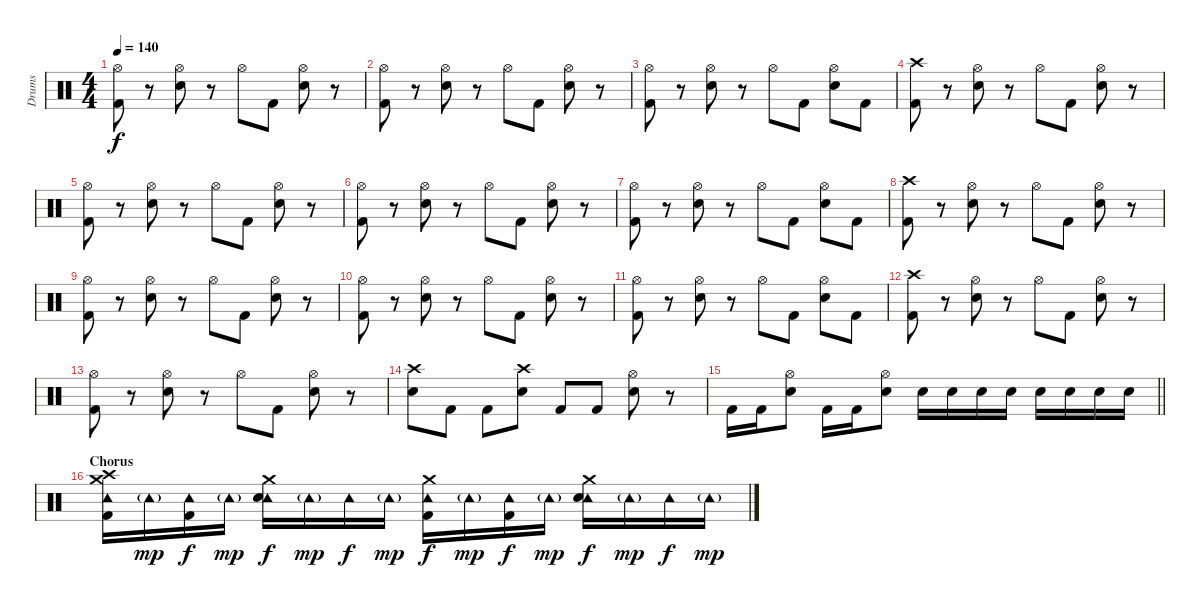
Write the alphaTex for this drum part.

\track ("Drums" "Drums") {instrument percussion}
\staff {score}
\articulation defaults
\ts (4 4)
\tempo 140
\clef neutral
\ks c
("Hi-Hat (open)" "Kick (hit) 2").8{dy f} r.8 ("Hi-Hat (open)" "Electric Snare (hit)").8 r.8 "Hi-Hat (open)".8 "Kick (hit) 2".8 ("Hi-Hat (open)" "Electric Snare (hit)").8 r.8 |
("Hi-Hat (open)" "Kick (hit) 2").8 r.8 ("Hi-Hat (open)" "Electric Snare (hit)").8 r.8 "Hi-Hat (open)".8 "Kick (hit) 2".8 ("Hi-Hat (open)" "Electric Snare (hit)").8 r.8 |
("Hi-Hat (open)" "Kick (hit) 2").8 r.8 ("Hi-Hat (open)" "Electric Snare (hit)").8 r.8 "Hi-Hat (open)".8 "Kick (hit) 2".8 ("Hi-Hat (open)" "Electric Snare (hit)").8 "Kick (hit) 2".8 |
("Crash high (hit)" "Kick (hit) 2").8 r.8 ("Hi-Hat (open)" "Electric Snare (hit)").8 r.8 "Hi-Hat (open)".8 "Kick (hit) 2".8 ("Hi-Hat (open)" "Electric Snare (hit)").8 r.8 |
("Hi-Hat (open)" "Kick (hit) 2").8 r.8 ("Hi-Hat (open)" "Electric Snare (hit)").8 r.8 "Hi-Hat (open)".8 "Kick (hit) 2".8 ("Hi-Hat (open)" "Electric Snare (hit)").8 r.8 |
("Hi-Hat (open)" "Kick (hit) 2").8 r.8 ("Hi-Hat (open)" "Electric Snare (hit)").8 r.8 "Hi-Hat (open)".8 "Kick (hit) 2".8 ("Hi-Hat (open)" "Electric Snare (hit)").8 r.8 |
("Hi-Hat (open)" "Kick (hit) 2").8 r.8 ("Hi-Hat (open)" "Electric Snare (hit)").8 r.8 "Hi-Hat (open)".8 "Kick (hit) 2".8 ("Hi-Hat (open)" "Electric Snare (hit)").8 "Kick (hit) 2".8 |
("Crash high (hit)" "Kick (hit) 2").8 r.8 ("Hi-Hat (open)" "Electric Snare (hit)").8 r.8 "Hi-Hat (open)".8 "Kick (hit) 2".8 ("Hi-Hat (open)" "Electric Snare (hit)").8 r.8 |
("Hi-Hat (open)" "Kick (hit) 2").8 r.8 ("Hi-Hat (open)" "Electric Snare (hit)").8 r.8 "Hi-Hat (open)".8 "Kick (hit) 2".8 ("Hi-Hat (open)" "Electric Snare (hit)").8 r.8 |
("Hi-Hat (open)" "Kick (hit) 2").8 r.8 ("Hi-Hat (open)" "Electric Snare (hit)").8 r.8 "Hi-Hat (open)".8 "Kick (hit) 2".8 ("Hi-Hat (open)" "Electric Snare (hit)").8 r.8 |
("Hi-Hat (open)" "Kick (hit) 2").8 r.8 ("Hi-Hat (open)" "Electric Snare (hit)").8 r.8 "Hi-Hat (open)".8 "Kick (hit) 2".8 ("Hi-Hat (open)" "Electric Snare (hit)").8 "Kick (hit) 2".8 |
("Crash high (hit)" "Kick (hit) 2").8 r.8 ("Hi-Hat (open)" "Electric Snare (hit)").8 r.8 "Hi-Hat (open)".8 "Kick (hit) 2".8 ("Hi-Hat (open)" "Electric Snare (hit)").8 r.8 |
("Hi-Hat (open)" "Kick (hit) 2").8 r.8 ("Hi-Hat (open)" "Electric Snare (hit)").8 r.8 "Hi-Hat (open)".8 "Kick (hit) 2".8 ("Hi-Hat (open)" "Electric Snare (hit)").8 r.8 |
("Crash high (hit)" "Electric Snare (hit)").8 "Kick (hit) 2".8 "Kick (hit) 2".8 ("Crash high (hit)" "Electric Snare (hit)").8 "Kick (hit) 2".8 "Kick (hit) 2".8 ("Hi-Hat (open)" "Electric Snare (hit)").8 r.8 |
\barLineRight lightlight "Kick (hit) 2".16 "Kick (hit) 2".16
("Hi-Hat (open)" "Electric Snare (hit)").8 "Kick (hit) 2".16 "Kick (hit) 2".16 ("Hi-Hat (open)" "Electric Snare (hit)").8 "Electric Snare (hit)".16 "Electric Snare (hit)".16 "Electric Snare (hit)".16 "Electric Snare (hit)".16 "Electric Snare (hit)".16 "Electric Snare (hit)".16 "Electric Snare (hit)".16 "Electric Snare (hit)".16 |
\section ("" "Chorus")
("Tambourine (hit)" "Crash high (hit)" "Crash medium (hit)" "Kick (hit) 2").16 "Tambourine (hit)"{g}.16{dy mp} ("Tambourine (hit)" "Kick (hit) 2").16{dy f} "Tambourine (hit)"{g}.16{dy mp} ("Tambourine (hit)" "Crash medium (hit)" "Electric Snare (hit)").16{dy f} "Tambourine (hit)"{g}.16{dy mp} "Tambourine (hit)".16{dy f} "Tambourine (hit)"{g}.16{dy mp} ("Tambourine (hit)" "Crash medium (hit)" "Kick (hit) 2").16{dy f} "Tambourine (hit)"{g}.16{dy mp} ("Tambourine (hit)" "Kick (hit) 2").16{dy f} "Tambourine (hit)"{g}.16{dy mp} ("Tambourine (hit)" "Crash medium (hit)" "Electric Snare (hit)").16{dy f} "Tambourine (hit)"{g}.16{dy mp} "Tambourine (hit)".16{dy f} "Tambourine (hit)"{g}.16{dy mp}
